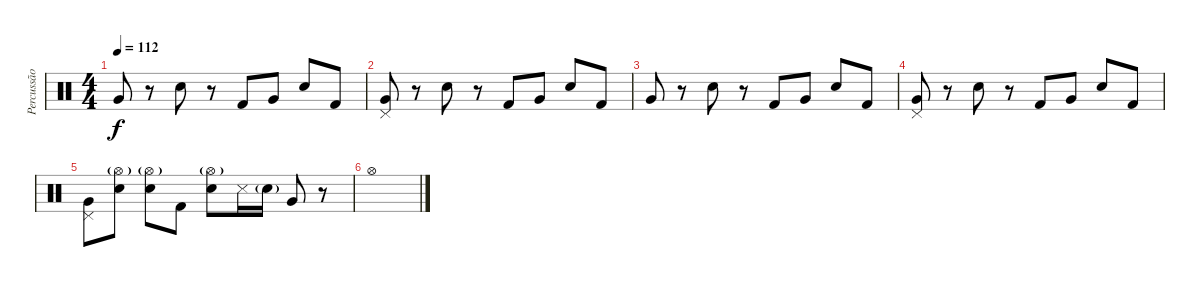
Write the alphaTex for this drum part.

\track ("Percussão" "Percussão") {instrument percussion}
\staff {score}
\articulation defaults
\ts (4 4)
\tempo 112
\clef neutral
\ks c "Very Low Tom (hit)".8{dy f}
r.8 "Electric Snare (hit)".8 r.8 "Kick (hit) 2".8 "Very Low Tom (hit)".8 "Electric Snare (hit)".8 "Kick (hit) 2".8 |
("Pedal Hi-Hat (hit)" "Very Low Tom (hit)").8 r.8 "Electric Snare (hit)".8 r.8 "Kick (hit) 2".8 "Very Low Tom (hit)".8 "Electric Snare (hit)".8 "Kick (hit) 2".8 |
"Very Low Tom (hit)".8 r.8 "Electric Snare (hit)".8 r.8 "Kick (hit) 2".8 "Very Low Tom (hit)".8 "Electric Snare (hit)".8 "Kick (hit) 2".8 |
("Pedal Hi-Hat (hit)" "Very Low Tom (hit)").8 r.8 "Electric Snare (hit)".8 r.8 "Kick (hit) 2".8 "Very Low Tom (hit)".8 "Electric Snare (hit)".8 "Kick (hit) 2".8 |
("Pedal Hi-Hat (hit)" "Very Low Tom (hit)").8 ("Hi-Hat (open)"{g} "Electric Snare (hit)").8 ("Hi-Hat (open)"{g} "Electric Snare (hit)").8 "Kick (hit) 2".8 ("Hi-Hat (open)"{g} "Electric Snare (hit)").8 "Snare (side stick) 3".16 "Electric Snare (hit)"{g}.16 "Very Low Tom (hit)".8 r.8 |
"Hi-Hat (open)".1
